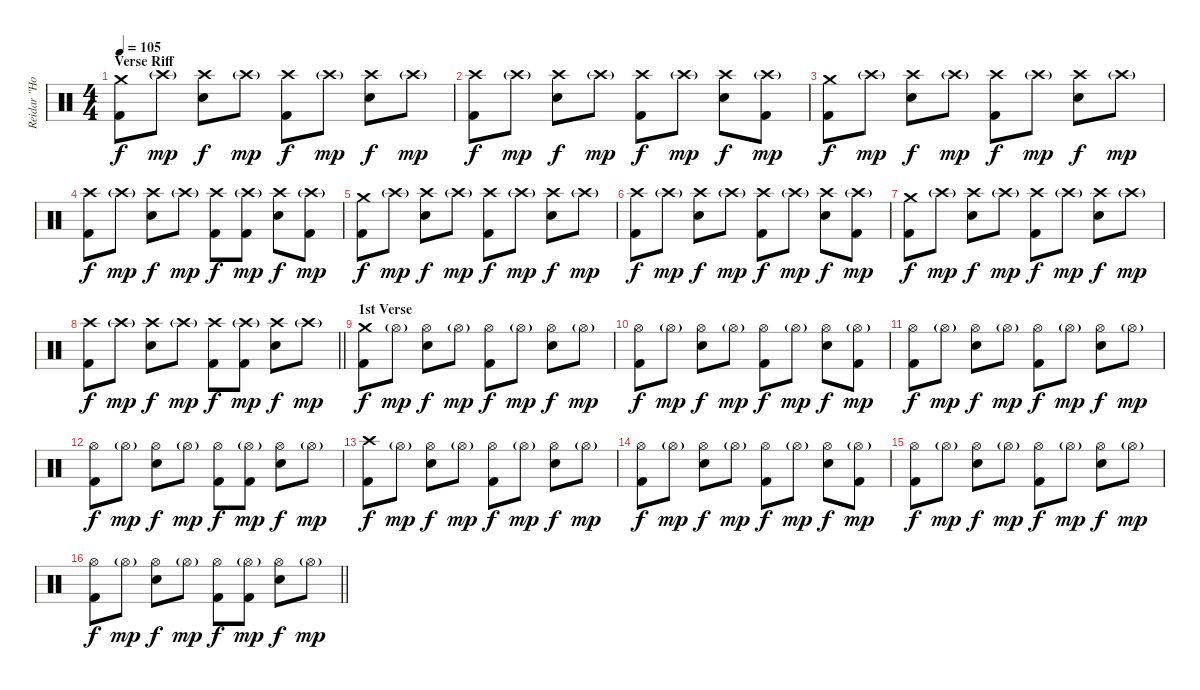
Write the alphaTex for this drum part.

\track ("Reidar \"Horgh\" Horghagen " "Reidar \"Ho") {instrument percussion}
\staff {score}
\articulation defaults
\ts (4 4)
\section ("" "Verse Riff")
\tempo 105
\clef neutral
\ks c
("Crash medium (hit)" "Kick (hit) 2").8{dy f} "Crash high (hit)"{g}.8{dy mp} ("Crash high (hit)" "Snare (hit) 2").8{dy f} "Crash high (hit)"{g}.8{dy mp} ("Crash high (hit)" "Kick (hit) 2").8{dy f} "Crash high (hit)"{g}.8{dy mp} ("Crash high (hit)" "Snare (hit) 2").8{dy f} "Crash high (hit)"{g}.8{dy mp} |
("Crash high (hit)" "Kick (hit) 2").8{dy f} "Crash high (hit)"{g}.8{dy mp} ("Crash high (hit)" "Snare (hit) 2").8{dy f} "Crash high (hit)"{g}.8{dy mp} ("Crash high (hit)" "Kick (hit) 2").8{dy f} "Crash high (hit)"{g}.8{dy mp} ("Crash high (hit)" "Snare (hit) 2").8{dy f} ("Crash high (hit)"{g} "Kick (hit) 2").8{dy mp} |
("Crash medium (hit)" "Kick (hit) 2").8{dy f} "Crash high (hit)"{g}.8{dy mp} ("Crash high (hit)" "Snare (hit) 2").8{dy f} "Crash high (hit)"{g}.8{dy mp} ("Crash high (hit)" "Kick (hit) 2").8{dy f} "Crash high (hit)"{g}.8{dy mp} ("Crash high (hit)" "Snare (hit) 2").8{dy f} "Crash high (hit)"{g}.8{dy mp} |
("Crash high (hit)" "Kick (hit) 2").8{dy f} "Crash high (hit)"{g}.8{dy mp} ("Crash high (hit)" "Snare (hit) 2").8{dy f} "Crash high (hit)"{g}.8{dy mp} ("Crash high (hit)" "Kick (hit) 2").8{dy f} ("Crash high (hit)"{g} "Kick (hit) 2").8{dy mp} ("Crash high (hit)" "Snare (hit) 2").8{dy f} ("Crash high (hit)"{g} "Kick (hit) 2").8{dy mp} |
("Crash medium (hit)" "Kick (hit) 2").8{dy f} "Crash high (hit)"{g}.8{dy mp} ("Crash high (hit)" "Snare (hit) 2").8{dy f} "Crash high (hit)"{g}.8{dy mp} ("Crash high (hit)" "Kick (hit) 2").8{dy f} "Crash high (hit)"{g}.8{dy mp} ("Crash high (hit)" "Snare (hit) 2").8{dy f} "Crash high (hit)"{g}.8{dy mp} |
("Crash high (hit)" "Kick (hit) 2").8{dy f} "Crash high (hit)"{g}.8{dy mp} ("Crash high (hit)" "Snare (hit) 2").8{dy f} "Crash high (hit)"{g}.8{dy mp} ("Crash high (hit)" "Kick (hit) 2").8{dy f} "Crash high (hit)"{g}.8{dy mp} ("Crash high (hit)" "Snare (hit) 2").8{dy f} ("Crash high (hit)"{g} "Kick (hit) 2").8{dy mp} |
("Crash medium (hit)" "Kick (hit) 2").8{dy f} "Crash high (hit)"{g}.8{dy mp} ("Crash high (hit)" "Snare (hit) 2").8{dy f} "Crash high (hit)"{g}.8{dy mp} ("Crash high (hit)" "Kick (hit) 2").8{dy f} "Crash high (hit)"{g}.8{dy mp} ("Crash high (hit)" "Snare (hit) 2").8{dy f} "Crash high (hit)"{g}.8{dy mp} |
\barLineRight lightlight
("Crash high (hit)" "Kick (hit) 2").8{dy f} "Crash high (hit)"{g}.8{dy mp} ("Crash high (hit)" "Snare (hit) 2").8{dy f} "Crash high (hit)"{g}.8{dy mp} ("Crash high (hit)" "Kick (hit) 2").8{dy f} ("Crash high (hit)"{g} "Kick (hit) 2").8{dy mp} ("Crash high (hit)" "Snare (hit) 2").8{dy f} "Crash high (hit)"{g}.8{dy mp} |
\section ("" "1st Verse")
("Crash medium (hit)" "Kick (hit) 2").8{dy f} "Hi-Hat (open)"{g}.8{dy mp} ("Hi-Hat (open)" "Snare (hit) 2").8{dy f} "Hi-Hat (open)"{g}.8{dy mp} ("Hi-Hat (open)" "Kick (hit) 2").8{dy f} "Hi-Hat (open)"{g}.8{dy mp} ("Hi-Hat (open)" "Snare (hit) 2").8{dy f} "Hi-Hat (open)"{g}.8{dy mp} |
("Hi-Hat (open)" "Kick (hit) 2").8{dy f} "Hi-Hat (open)"{g}.8{dy mp} ("Hi-Hat (open)" "Snare (hit) 2").8{dy f} "Hi-Hat (open)"{g}.8{dy mp} ("Hi-Hat (open)" "Kick (hit) 2").8{dy f} "Hi-Hat (open)"{g}.8{dy mp} ("Hi-Hat (open)" "Snare (hit) 2").8{dy f} ("Hi-Hat (open)"{g} "Kick (hit) 2").8{dy mp} |
("Hi-Hat (open)" "Kick (hit) 2").8{dy f} "Hi-Hat (open)"{g}.8{dy mp} ("Hi-Hat (open)" "Snare (hit) 2").8{dy f} "Hi-Hat (open)"{g}.8{dy mp} ("Hi-Hat (open)" "Kick (hit) 2").8{dy f} "Hi-Hat (open)"{g}.8{dy mp} ("Hi-Hat (open)" "Snare (hit) 2").8{dy f} "Hi-Hat (open)"{g}.8{dy mp} |
("Hi-Hat (open)" "Kick (hit) 2").8{dy f} "Hi-Hat (open)"{g}.8{dy mp} ("Hi-Hat (open)" "Snare (hit) 2").8{dy f} "Hi-Hat (open)"{g}.8{dy mp} ("Hi-Hat (open)" "Kick (hit) 2").8{dy f} ("Hi-Hat (open)"{g} "Kick (hit) 2").8{dy mp} ("Hi-Hat (open)" "Snare (hit) 2").8{dy f} "Hi-Hat (open)"{g}.8{dy mp} |
("Crash high (hit)" "Kick (hit) 2").8{dy f} "Hi-Hat (open)"{g}.8{dy mp} ("Hi-Hat (open)" "Snare (hit) 2").8{dy f} "Hi-Hat (open)"{g}.8{dy mp} ("Hi-Hat (open)" "Kick (hit) 2").8{dy f} "Hi-Hat (open)"{g}.8{dy mp} ("Hi-Hat (open)" "Snare (hit) 2").8{dy f} "Hi-Hat (open)"{g}.8{dy mp} |
("Hi-Hat (open)" "Kick (hit) 2").8{dy f} "Hi-Hat (open)"{g}.8{dy mp} ("Hi-Hat (open)" "Snare (hit) 2").8{dy f} "Hi-Hat (open)"{g}.8{dy mp} ("Hi-Hat (open)" "Kick (hit) 2").8{dy f} "Hi-Hat (open)"{g}.8{dy mp} ("Hi-Hat (open)" "Snare (hit) 2").8{dy f} ("Hi-Hat (open)"{g} "Kick (hit) 2").8{dy mp} |
("Hi-Hat (open)" "Kick (hit) 2").8{dy f} "Hi-Hat (open)"{g}.8{dy mp} ("Hi-Hat (open)" "Snare (hit) 2").8{dy f} "Hi-Hat (open)"{g}.8{dy mp} ("Hi-Hat (open)" "Kick (hit) 2").8{dy f} "Hi-Hat (open)"{g}.8{dy mp} ("Hi-Hat (open)" "Snare (hit) 2").8{dy f} "Hi-Hat (open)"{g}.8{dy mp} |
\barLineRight lightlight
("Hi-Hat (open)" "Kick (hit) 2").8{dy f} "Hi-Hat (open)"{g}.8{dy mp} ("Hi-Hat (open)" "Snare (hit) 2").8{dy f} "Hi-Hat (open)"{g}.8{dy mp} ("Hi-Hat (open)" "Kick (hit) 2").8{dy f} ("Hi-Hat (open)"{g} "Kick (hit) 2").8{dy mp} ("Hi-Hat (open)" "Snare (hit) 2").8{dy f} "Hi-Hat (open)"{g}.8{dy mp}
